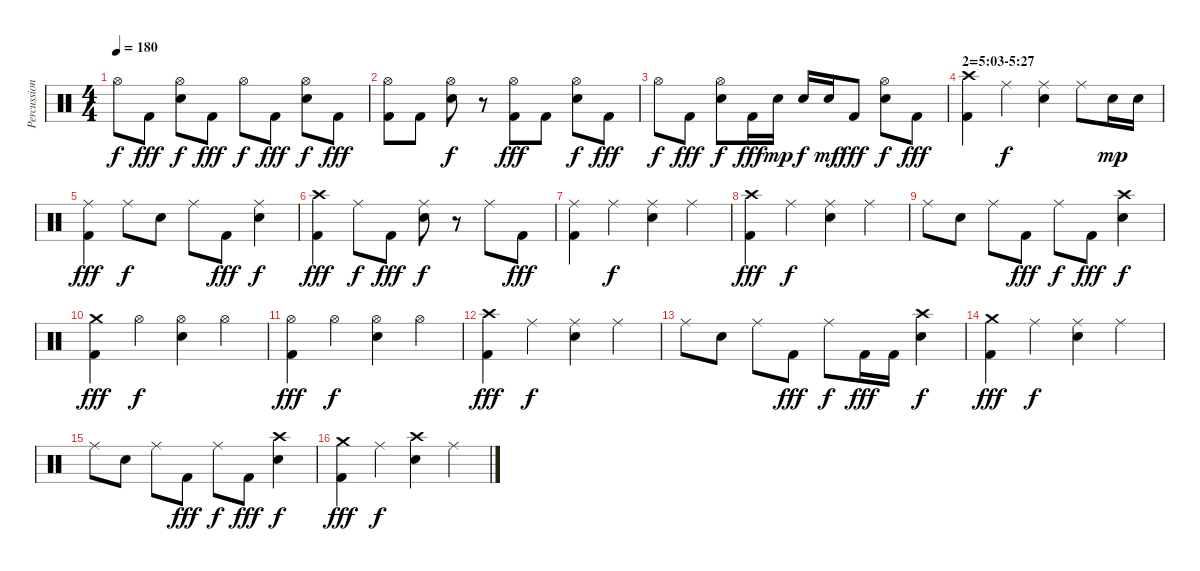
\track ("Percussion" "Percussion") {instrument percussion}
\staff {score}
\articulation defaults
\ts (4 4)
\tempo 180
\clef neutral
\ks c "Hi-Hat (open)".8{dy f} "Kick (hit) 2".8{dy fff}
("Hi-Hat (open)" "Snare (hit) 2").8{dy f} "Kick (hit) 2".8{dy fff} "Hi-Hat (open)".8{dy f} "Kick (hit) 2".8{dy fff} ("Hi-Hat (open)" "Snare (hit) 2").8{dy f} "Kick (hit) 2".8{dy fff} |
("Hi-Hat (open)" "Kick (hit) 2").8 "Kick (hit) 2".8 ("Hi-Hat (open)" "Snare (hit) 2").8{dy f} r.8 ("Hi-Hat (open)" "Kick (hit) 2").8{dy fff} "Kick (hit) 2".8 ("Hi-Hat (open)" "Snare (hit) 2").8{dy f} "Kick (hit) 2".8{dy fff} |
"Hi-Hat (open)".8{dy f} "Kick (hit) 2".8{dy fff} ("Hi-Hat (open)" "Snare (hit) 2").8{dy f} "Kick (hit) 2".16{dy fff} "Snare (hit) 2".16{dy mp} "Snare (hit) 2".16{dy f} "Snare (hit) 2".16{dy mf} "Kick (hit) 2".8{dy fff} ("Hi-Hat (open)" "Snare (hit) 2").8{dy f} "Kick (hit) 2".8{dy fff} |
\section ("" "2=5:03-5:27")
("Crash high (hit)" "Kick (hit) 2").4 "Ride (middle)".4{dy f} ("Ride (middle)" "Electric Snare (hit)").4 "Ride (middle)".8 "Electric Snare (hit)".16{dy mp} "Electric Snare (hit)".16 |
("Ride (middle)" "Kick (hit) 2").4{dy fff} "Ride (middle)".8{dy f} "Electric Snare (hit)".8 "Ride (middle)".8 "Kick (hit) 2".8{dy fff} ("Ride (middle)" "Electric Snare (hit)").4{dy f} |
("Crash high (hit)" "Kick (hit) 2").4{dy fff} "Ride (middle)".8{dy f} "Kick (hit) 2".8{dy fff} ("Ride (middle)" "Electric Snare (hit)").8{dy f} r.8 "Ride (middle)".8 "Kick (hit) 2".8{dy fff} |
("Ride (middle)" "Kick (hit) 2").4 "Ride (middle)".4{dy f} ("Ride (middle)" "Electric Snare (hit)").4 "Ride (middle)".4 |
("Crash high (hit)" "Kick (hit) 2").4{dy fff} "Ride (middle)".4{dy f} ("Ride (middle)" "Electric Snare (hit)").4 "Ride (middle)".4 |
"Ride (middle)".8 "Electric Snare (hit)".8 "Ride (middle)".8 "Kick (hit) 2".8{dy fff} "Ride (middle)".8{dy f} "Kick (hit) 2".8{dy fff} ("Crash high (hit)" "Electric Snare (hit)").4{dy f} |
("Crash medium (hit)" "Kick (hit) 2").4{dy fff} "Hi-Hat (open)".4{dy f} ("Hi-Hat (open)" "Electric Snare (hit)").4 "Hi-Hat (open)".4 |
("Hi-Hat (open)" "Kick (hit) 2").4{dy fff} "Hi-Hat (open)".4{dy f} ("Hi-Hat (open)" "Electric Snare (hit)").4 "Hi-Hat (open)".4 |
("Crash high (hit)" "Kick (hit) 2").4{dy fff} "Ride (middle)".4{dy f} ("Ride (middle)" "Electric Snare (hit)").4 "Ride (middle)".4 |
"Ride (middle)".8 "Electric Snare (hit)".8 "Ride (middle)".8 "Kick (hit) 2".8{dy fff} "Ride (middle)".8{dy f} "Kick (hit) 2".16{dy fff} "Kick (hit) 2".16 ("Crash high (hit)" "Electric Snare (hit)").4{dy f} |
("Crash medium (hit)" "Kick (hit) 2").4{dy fff} "Ride (middle)".4{dy f} ("Ride (middle)" "Electric Snare (hit)").4 "Ride (middle)".4 |
"Ride (middle)".8 "Electric Snare (hit)".8 "Ride (middle)".8 "Kick (hit) 2".8{dy fff} "Ride (middle)".8{dy f} "Kick (hit) 2".8{dy fff} ("Crash high (hit)" "Electric Snare (hit)").4{dy f} |
("Crash medium (hit)" "Kick (hit) 2").4{dy fff} "Ride (middle)".4{dy f} ("Crash high (hit)" "Electric Snare (hit)").4 "Ride (middle)".4
